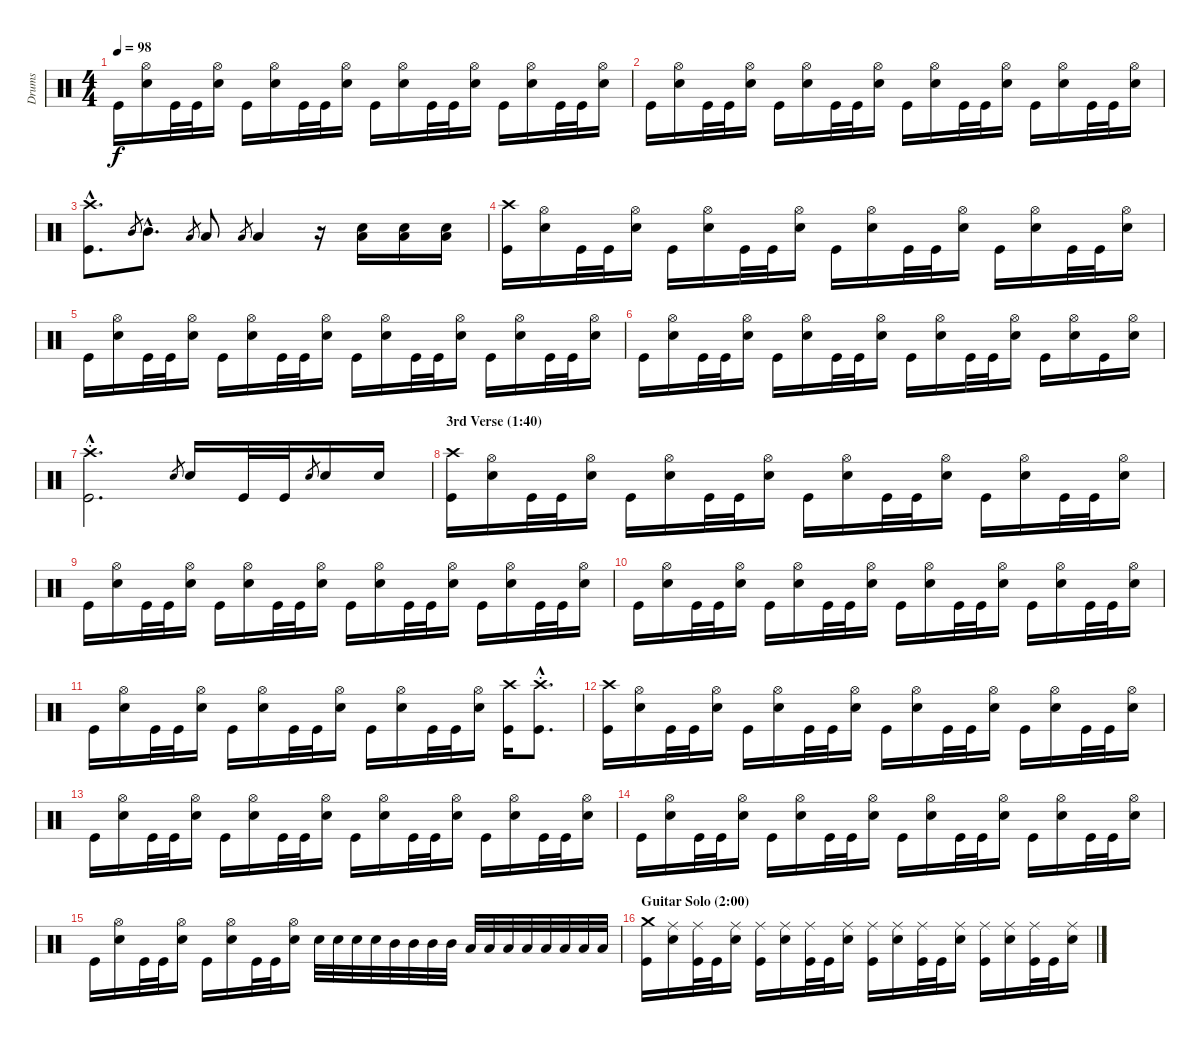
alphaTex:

\track ("Drums" "Drums") {instrument percussion}
\staff {score}
\articulation defaults
\ts (4 4)
\tempo 98
\clef neutral
\ks c "Kick (hit)".16{dy f}
("Hi-Hat (open)" "Snare (hit) 2").16 "Kick (hit)".32 "Kick (hit)".32 ("Hi-Hat (open)" "Snare (hit) 2").16 "Kick (hit)".16 ("Hi-Hat (open)" "Snare (hit) 2").16 "Kick (hit)".32 "Kick (hit)".32 ("Hi-Hat (open)" "Snare (hit) 2").16 "Kick (hit)".16 ("Hi-Hat (open)" "Snare (hit) 2").16 "Kick (hit)".32 "Kick (hit)".32 ("Hi-Hat (open)" "Snare (hit) 2").16 "Kick (hit)".16 ("Hi-Hat (open)" "Snare (hit) 2").16 "Kick (hit)".32 "Kick (hit)".32 ("Hi-Hat (open)" "Snare (hit) 2").16 |
"Kick (hit)".16 ("Hi-Hat (open)" "Snare (hit) 2").16 "Kick (hit)".32 "Kick (hit)".32 ("Hi-Hat (open)" "Snare (hit) 2").16 "Kick (hit)".16 ("Hi-Hat (open)" "Snare (hit) 2").16 "Kick (hit)".32 "Kick (hit)".32 ("Hi-Hat (open)" "Snare (hit) 2").16 "Kick (hit)".16 ("Hi-Hat (open)" "Snare (hit) 2").16 "Kick (hit)".32 "Kick (hit)".32 ("Hi-Hat (open)" "Snare (hit) 2").16 "Kick (hit)".16 ("Hi-Hat (open)" "Snare (hit) 2").16 "Kick (hit)".32 "Kick (hit)".32 ("Hi-Hat (open)" "Snare (hit) 2").16 |
("Crash high (hit)"{hac} "Kick (hit)"{hac}).8{d} "Mid Tom (hit)".8{gr} "Mid Tom (hit)"{hac}.8{d} "Low Tom (hit)".8{gr} "Low Tom (hit)".8 "Low Floor Tom (hit)".8{gr} "Low Floor Tom (hit)".4 r.16 ("Snare (hit) 2" "Low Floor Tom (hit)").16 ("Snare (hit) 2" "Low Floor Tom (hit)").16 ("Snare (hit) 2" "Low Floor Tom (hit)").16 |
("Crash high (hit)" "Kick (hit)").16 ("Hi-Hat (open)" "Snare (hit) 2").16 "Kick (hit)".32 "Kick (hit)".32 ("Hi-Hat (open)" "Snare (hit) 2").16 "Kick (hit)".16 ("Hi-Hat (open)" "Snare (hit) 2").16 "Kick (hit)".32 "Kick (hit)".32 ("Hi-Hat (open)" "Snare (hit) 2").16 "Kick (hit)".16 ("Hi-Hat (open)" "Snare (hit) 2").16 "Kick (hit)".32 "Kick (hit)".32 ("Hi-Hat (open)" "Snare (hit) 2").16 "Kick (hit)".16 ("Hi-Hat (open)" "Snare (hit) 2").16 "Kick (hit)".32 "Kick (hit)".32 ("Hi-Hat (open)" "Snare (hit) 2").16 |
"Kick (hit)".16 ("Hi-Hat (open)" "Snare (hit) 2").16 "Kick (hit)".32 "Kick (hit)".32 ("Hi-Hat (open)" "Snare (hit) 2").16 "Kick (hit)".16 ("Hi-Hat (open)" "Snare (hit) 2").16 "Kick (hit)".32 "Kick (hit)".32 ("Hi-Hat (open)" "Snare (hit) 2").16 "Kick (hit)".16 ("Hi-Hat (open)" "Snare (hit) 2").16 "Kick (hit)".32 "Kick (hit)".32 ("Hi-Hat (open)" "Snare (hit) 2").16 "Kick (hit)".16 ("Hi-Hat (open)" "Snare (hit) 2").16 "Kick (hit)".32 "Kick (hit)".32 ("Hi-Hat (open)" "Snare (hit) 2").16 |
"Kick (hit)".16 ("Hi-Hat (open)" "Snare (hit) 2").16 "Kick (hit)".32 "Kick (hit)".32 ("Hi-Hat (open)" "Snare (hit) 2").16 "Kick (hit)".16 ("Hi-Hat (open)" "Snare (hit) 2").16 "Kick (hit)".32 "Kick (hit)".32 ("Hi-Hat (open)" "Snare (hit) 2").16 "Kick (hit)".16 ("Hi-Hat (open)" "Snare (hit) 2").16 "Kick (hit)".32 "Kick (hit)".32 ("Hi-Hat (open)" "Snare (hit) 2").16 "Kick (hit)".16 ("Hi-Hat (open)" "Snare (hit) 2").16 "Kick (hit)".16 ("Hi-Hat (open)" "Snare (hit) 2").16 |
("Crash high (hit)"{hac st} "Kick (hit)"{hac}).2{d} "Snare (hit) 2".8{gr} "Snare (hit) 2".16 "Kick (hit)".32 "Kick (hit)".32 "Snare (hit) 2".8{gr} "Snare (hit) 2".16 "Snare (hit) 2".16 |
\section ("" "3rd Verse (1:40)")
("Crash high (hit)" "Kick (hit)").16 ("Hi-Hat (open)" "Snare (hit) 2").16 "Kick (hit)".32 "Kick (hit)".32 ("Hi-Hat (open)" "Snare (hit) 2").16 "Kick (hit)".16 ("Hi-Hat (open)" "Snare (hit) 2").16 "Kick (hit)".32 "Kick (hit)".32 ("Hi-Hat (open)" "Snare (hit) 2").16 "Kick (hit)".16 ("Hi-Hat (open)" "Snare (hit) 2").16 "Kick (hit)".32 "Kick (hit)".32 ("Hi-Hat (open)" "Snare (hit) 2").16 "Kick (hit)".16 ("Hi-Hat (open)" "Snare (hit) 2").16 "Kick (hit)".32 "Kick (hit)".32 ("Hi-Hat (open)" "Snare (hit) 2").16 |
"Kick (hit)".16 ("Hi-Hat (open)" "Snare (hit) 2").16 "Kick (hit)".32 "Kick (hit)".32 ("Hi-Hat (open)" "Snare (hit) 2").16 "Kick (hit)".16 ("Hi-Hat (open)" "Snare (hit) 2").16 "Kick (hit)".32 "Kick (hit)".32 ("Hi-Hat (open)" "Snare (hit) 2").16 "Kick (hit)".16 ("Hi-Hat (open)" "Snare (hit) 2").16 "Kick (hit)".32 "Kick (hit)".32 ("Hi-Hat (open)" "Snare (hit) 2").16 "Kick (hit)".16 ("Hi-Hat (open)" "Snare (hit) 2").16 "Kick (hit)".32 "Kick (hit)".32 ("Hi-Hat (open)" "Snare (hit) 2").16 |
"Kick (hit)".16 ("Hi-Hat (open)" "Snare (hit) 2").16 "Kick (hit)".32 "Kick (hit)".32 ("Hi-Hat (open)" "Snare (hit) 2").16 "Kick (hit)".16 ("Hi-Hat (open)" "Snare (hit) 2").16 "Kick (hit)".32 "Kick (hit)".32 ("Hi-Hat (open)" "Snare (hit) 2").16 "Kick (hit)".16 ("Hi-Hat (open)" "Snare (hit) 2").16 "Kick (hit)".32 "Kick (hit)".32 ("Hi-Hat (open)" "Snare (hit) 2").16 "Kick (hit)".16 ("Hi-Hat (open)" "Snare (hit) 2").16 "Kick (hit)".32 "Kick (hit)".32 ("Hi-Hat (open)" "Snare (hit) 2").16 |
"Kick (hit)".16 ("Hi-Hat (open)" "Snare (hit) 2").16 "Kick (hit)".32 "Kick (hit)".32 ("Hi-Hat (open)" "Snare (hit) 2").16 "Kick (hit)".16 ("Hi-Hat (open)" "Snare (hit) 2").16 "Kick (hit)".32 "Kick (hit)".32 ("Hi-Hat (open)" "Snare (hit) 2").16 "Kick (hit)".16 ("Hi-Hat (open)" "Snare (hit) 2").16 "Kick (hit)".32 "Kick (hit)".32 ("Hi-Hat (open)" "Snare (hit) 2").16 ("Crash high (hit)" "Kick (hit)").16 ("Crash high (hit)"{hac st} "Kick (hit)"{hac}).8{d} |
("Crash high (hit)" "Kick (hit)").16 ("Hi-Hat (open)" "Snare (hit) 2").16 "Kick (hit)".32 "Kick (hit)".32 ("Hi-Hat (open)" "Snare (hit) 2").16 "Kick (hit)".16 ("Hi-Hat (open)" "Snare (hit) 2").16 "Kick (hit)".32 "Kick (hit)".32 ("Hi-Hat (open)" "Snare (hit) 2").16 "Kick (hit)".16 ("Hi-Hat (open)" "Snare (hit) 2").16 "Kick (hit)".32 "Kick (hit)".32 ("Hi-Hat (open)" "Snare (hit) 2").16 "Kick (hit)".16 ("Hi-Hat (open)" "Snare (hit) 2").16 "Kick (hit)".32 "Kick (hit)".32 ("Hi-Hat (open)" "Snare (hit) 2").16 |
"Kick (hit)".16 ("Hi-Hat (open)" "Snare (hit) 2").16 "Kick (hit)".32 "Kick (hit)".32 ("Hi-Hat (open)" "Snare (hit) 2").16 "Kick (hit)".16 ("Hi-Hat (open)" "Snare (hit) 2").16 "Kick (hit)".32 "Kick (hit)".32 ("Hi-Hat (open)" "Snare (hit) 2").16 "Kick (hit)".16 ("Hi-Hat (open)" "Snare (hit) 2").16 "Kick (hit)".32 "Kick (hit)".32 ("Hi-Hat (open)" "Snare (hit) 2").16 "Kick (hit)".16 ("Hi-Hat (open)" "Snare (hit) 2").16 "Kick (hit)".32 "Kick (hit)".32 ("Hi-Hat (open)" "Snare (hit) 2").16 |
"Kick (hit)".16 ("Hi-Hat (open)" "Snare (hit) 2").16 "Kick (hit)".32 "Kick (hit)".32 ("Hi-Hat (open)" "Snare (hit) 2").16 "Kick (hit)".16 ("Hi-Hat (open)" "Snare (hit) 2").16 "Kick (hit)".32 "Kick (hit)".32 ("Hi-Hat (open)" "Snare (hit) 2").16 "Kick (hit)".16 ("Hi-Hat (open)" "Snare (hit) 2").16 "Kick (hit)".32 "Kick (hit)".32 ("Hi-Hat (open)" "Snare (hit) 2").16 "Kick (hit)".16 ("Hi-Hat (open)" "Snare (hit) 2").16 "Kick (hit)".32 "Kick (hit)".32 ("Hi-Hat (open)" "Snare (hit) 2").16 |
"Kick (hit)".16 ("Hi-Hat (open)" "Snare (hit) 2").16 "Kick (hit)".32 "Kick (hit)".32 ("Hi-Hat (open)" "Snare (hit) 2").16 "Kick (hit)".16 ("Hi-Hat (open)" "Snare (hit) 2").16 "Kick (hit)".32 "Kick (hit)".32 ("Hi-Hat (open)" "Snare (hit) 2").16 "Snare (hit) 2".32 "Snare (hit) 2".32 "Snare (hit) 2".32 "Snare (hit) 2".32 "Mid Tom (hit)".32 "Mid Tom (hit)".32 "Mid Tom (hit)".32 "Mid Tom (hit)".32 "Low Tom (hit)".32 "Low Tom (hit)".32 "Low Tom (hit)".32 "Low Tom (hit)".32 "Low Floor Tom (hit)".32 "Low Floor Tom (hit)".32 "Low Floor Tom (hit)".32 "Low Floor Tom (hit)".32 |
\section ("" "Guitar Solo (2:00)")
("Crash medium (hit)" "Kick (hit)").16 ("Ride (middle)" "Snare (hit) 2").16 ("Ride (middle)" "Kick (hit)").32 "Kick (hit)".32 ("Ride (middle)" "Snare (hit) 2").16 ("Ride (middle)" "Kick (hit)").16 ("Ride (middle)" "Snare (hit) 2").16 ("Ride (middle)" "Kick (hit)").32 "Kick (hit)".32 ("Ride (middle)" "Snare (hit) 2").16 ("Ride (middle)" "Kick (hit)").16 ("Ride (middle)" "Snare (hit) 2").16 ("Ride (middle)" "Kick (hit)").32 "Kick (hit)".32 ("Ride (middle)" "Snare (hit) 2").16 ("Ride (middle)" "Kick (hit)").16 ("Ride (middle)" "Snare (hit) 2").16 ("Ride (middle)" "Kick (hit)").32 "Kick (hit)".32 ("Ride (middle)" "Snare (hit) 2").16
